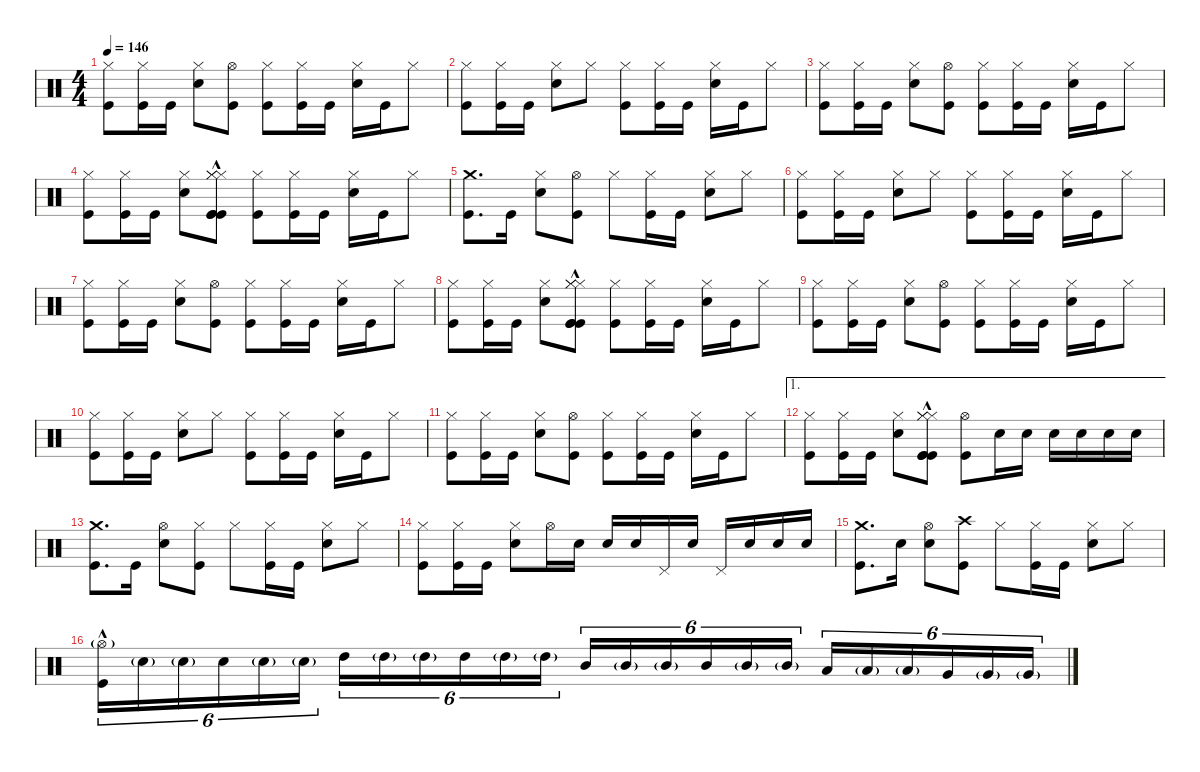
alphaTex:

\defaultSystemsLayout 4
\hideDynamics
\bracketExtendMode nobrackets
\singleTrackTrackNamePolicy hidden
\multiTrackTrackNamePolicy hidden
\firstSystemTrackNameMode fullname
\firstSystemTrackNameOrientation horizontal
\otherSystemsTrackNameOrientation horizontal
\track ("Drums" "drm.") {instrument percussion}
\staff {score}
\articulation defaults
\ts (4 4)
\tempo 146
\clef neutral
\ks c
("Hi-Hat (closed)" "Kick (hit)").8{dy f beam Down} ("Hi-Hat (closed)" "Kick (hit)").16{beam Down} "Kick (hit)".16{beam Down} ("Hi-Hat (closed)" "Snare (hit) 2").8{beam Down} ("Hi-Hat (open)" "Kick (hit)").8{beam Down} ("Hi-Hat (closed)" "Kick (hit)").8{beam Down} ("Hi-Hat (closed)" "Kick (hit)").16{beam Down} "Kick (hit)".16{beam Down} ("Hi-Hat (closed)" "Snare (hit) 2").16{beam Down} "Kick (hit)".16{beam Down} "Hi-Hat (closed)".8{beam Down} |
("Hi-Hat (closed)" "Kick (hit)").8{beam Down} ("Hi-Hat (closed)" "Kick (hit)").16{beam Down} "Kick (hit)".16{beam Down} ("Hi-Hat (closed)" "Snare (hit) 2").8{beam Down} "Hi-Hat (closed)".8{beam Down} ("Hi-Hat (closed)" "Kick (hit)").8{beam Down} ("Hi-Hat (closed)" "Kick (hit)").16{beam Down} "Kick (hit)".16{beam Down} ("Hi-Hat (closed)" "Snare (hit) 2").16{beam Down} "Kick (hit)".16{beam Down} "Hi-Hat (closed)".8{beam Down} |
("Hi-Hat (closed)" "Kick (hit)").8{beam Down} ("Hi-Hat (closed)" "Kick (hit)").16{beam Down} "Kick (hit)".16{beam Down} ("Hi-Hat (closed)" "Snare (hit) 2").8{beam Down} ("Hi-Hat (open)" "Kick (hit)").8{beam Down} ("Hi-Hat (closed)" "Kick (hit)").8{beam Down} ("Hi-Hat (closed)" "Kick (hit)").16{beam Down} "Kick (hit)".16{beam Down} ("Hi-Hat (closed)" "Snare (hit) 2").16{beam Down} "Kick (hit)".16{beam Down} "Hi-Hat (closed)".8{beam Down} |
("Hi-Hat (closed)" "Kick (hit)").8{beam Down} ("Hi-Hat (closed)" "Kick (hit)").16{beam Down} "Kick (hit)".16{beam Down} ("Hi-Hat (closed)" "Snare (hit) 2").8{beam Down} ("Hi-Hat (closed)"{hac} "Hi-Hat (closed)"{hac} "Hi-Hat (closed)"{hac} "Kick (hit)"{hac} "Kick (hit)"{hac} "Kick (hit)"{hac}).8{beam Down} ("Hi-Hat (closed)" "Kick (hit)").8{beam Down} ("Hi-Hat (closed)" "Kick (hit)").16{beam Down} "Kick (hit)".16{beam Down} ("Hi-Hat (closed)" "Snare (hit) 2").16{beam Down} "Kick (hit)".16{beam Down} "Hi-Hat (closed)".8{beam Down} |
("Crash medium (hit)" "Kick (hit)").8{d beam Down} "Kick (hit)".16{beam Down} ("Hi-Hat (closed)" "Snare (hit) 2").8{beam Down} ("Hi-Hat (open)" "Kick (hit)").8{beam Down} "Hi-Hat (closed)".8{beam Down} ("Hi-Hat (closed)" "Kick (hit)").16{beam Down} "Kick (hit)".16{beam Down} ("Hi-Hat (closed)" "Snare (hit) 2").8{beam Down} "Hi-Hat (closed)".8{beam Down} |
("Hi-Hat (closed)" "Kick (hit)").8{beam Down} ("Hi-Hat (closed)" "Kick (hit)").16{beam Down} "Kick (hit)".16{beam Down} ("Hi-Hat (closed)" "Snare (hit) 2").8{beam Down} "Hi-Hat (closed)".8{beam Down} ("Hi-Hat (closed)" "Kick (hit)").8{beam Down} ("Hi-Hat (closed)" "Kick (hit)").16{beam Down} "Kick (hit)".16{beam Down} ("Hi-Hat (closed)" "Snare (hit) 2").16{beam Down} "Kick (hit)".16{beam Down} "Hi-Hat (closed)".8{beam Down} |
("Hi-Hat (closed)" "Kick (hit)").8{beam Down} ("Hi-Hat (closed)" "Kick (hit)").16{beam Down} "Kick (hit)".16{beam Down} ("Hi-Hat (closed)" "Snare (hit) 2").8{beam Down} ("Hi-Hat (open)" "Kick (hit)").8{beam Down} ("Hi-Hat (closed)" "Kick (hit)").8{beam Down} ("Hi-Hat (closed)" "Kick (hit)").16{beam Down} "Kick (hit)".16{beam Down} ("Hi-Hat (closed)" "Snare (hit) 2").16{beam Down} "Kick (hit)".16{beam Down} "Hi-Hat (closed)".8{beam Down} |
("Hi-Hat (closed)" "Kick (hit)").8{beam Down} ("Hi-Hat (closed)" "Kick (hit)").16{beam Down} "Kick (hit)".16{beam Down} ("Hi-Hat (closed)" "Snare (hit) 2").8{beam Down} ("Hi-Hat (closed)"{hac} "Hi-Hat (closed)"{hac} "Hi-Hat (closed)"{hac} "Kick (hit)"{hac} "Kick (hit)"{hac} "Kick (hit)"{hac}).8{beam Down} ("Hi-Hat (closed)" "Kick (hit)").8{beam Down} ("Hi-Hat (closed)" "Kick (hit)").16{beam Down} "Kick (hit)".16{beam Down} ("Hi-Hat (closed)" "Snare (hit) 2").16{beam Down} "Kick (hit)".16{beam Down} "Hi-Hat (closed)".8{beam Down} |
("Hi-Hat (closed)" "Kick (hit)").8{beam Down} ("Hi-Hat (closed)" "Kick (hit)").16{beam Down} "Kick (hit)".16{beam Down} ("Hi-Hat (closed)" "Snare (hit) 2").8{beam Down} ("Hi-Hat (open)" "Kick (hit)").8{beam Down} ("Hi-Hat (closed)" "Kick (hit)").8{beam Down} ("Hi-Hat (closed)" "Kick (hit)").16{beam Down} "Kick (hit)".16{beam Down} ("Hi-Hat (closed)" "Snare (hit) 2").16{beam Down} "Kick (hit)".16{beam Down} "Hi-Hat (closed)".8{beam Down} |
("Hi-Hat (closed)" "Kick (hit)").8{beam Down} ("Hi-Hat (closed)" "Kick (hit)").16{beam Down} "Kick (hit)".16{beam Down} ("Hi-Hat (closed)" "Snare (hit) 2").8{beam Down} "Hi-Hat (closed)".8{beam Down} ("Hi-Hat (closed)" "Kick (hit)").8{beam Down} ("Hi-Hat (closed)" "Kick (hit)").16{beam Down} "Kick (hit)".16{beam Down} ("Hi-Hat (closed)" "Snare (hit) 2").16{beam Down} "Kick (hit)".16{beam Down} "Hi-Hat (closed)".8{beam Down} |
("Hi-Hat (closed)" "Kick (hit)").8{beam Down} ("Hi-Hat (closed)" "Kick (hit)").16{beam Down} "Kick (hit)".16{beam Down} ("Hi-Hat (closed)" "Snare (hit) 2").8{beam Down} ("Hi-Hat (open)" "Kick (hit)").8{beam Down} ("Hi-Hat (closed)" "Kick (hit)").8{beam Down} ("Hi-Hat (closed)" "Kick (hit)").16{beam Down} "Kick (hit)".16{beam Down} ("Hi-Hat (closed)" "Snare (hit) 2").16{beam Down} "Kick (hit)".16{beam Down} "Hi-Hat (closed)".8{beam Down} |
\ae 1
("Hi-Hat (closed)" "Kick (hit)").8{beam Down} ("Hi-Hat (closed)" "Kick (hit)").16{beam Down} "Kick (hit)".16{beam Down} ("Hi-Hat (closed)" "Snare (hit) 2").8{beam Down} ("Hi-Hat (closed)"{hac} "Hi-Hat (closed)"{hac} "Hi-Hat (closed)"{hac} "Kick (hit)"{hac} "Kick (hit)"{hac} "Kick (hit)"{hac}).8{beam Down} ("Hi-Hat (open)" "Kick (hit)").8{beam Down} "Snare (hit) 2".16{beam Down} "Snare (hit) 2".16{beam Down} "Snare (hit) 2".16{beam Down} "Snare (hit) 2".16{beam Down} "Snare (hit) 2".16{beam Down} "Snare (hit) 2".16{beam Down} |
("Crash medium (hit)" "Kick (hit)").8{d beam Down} "Kick (hit)".16{beam Down} ("Hi-Hat (open)" "Snare (hit) 2").8{beam Down} ("Hi-Hat (closed)" "Kick (hit)").8{beam Down} "Hi-Hat (closed)".8{beam Down} ("Hi-Hat (closed)" "Kick (hit)").16{beam Down} "Kick (hit)".16{beam Down} ("Hi-Hat (closed)" "Snare (hit) 2").8{beam Down} "Hi-Hat (closed)".8{beam Down} |
("Hi-Hat (closed)" "Kick (hit)").8{beam Down} ("Hi-Hat (closed)" "Kick (hit)").16{beam Down} "Kick (hit)".16{beam Down} ("Hi-Hat (closed)" "Snare (hit) 2").8{beam Down} "Hi-Hat (open)".16{beam Down} "Snare (hit) 2".16{beam Down} "Snare (hit) 2".16{beam Up} "Snare (hit) 2".16{beam Up} "Pedal Hi-Hat (hit)".16{beam Up} "Snare (hit) 2".16{beam Up} "Pedal Hi-Hat (hit)".16{beam Up} "Snare (hit) 2".16{beam Up} "Snare (hit) 2".16{beam Up} "Snare (hit) 2".16{beam Up} |
("Crash medium (hit)" "Kick (hit)").8{d beam Down} "Snare (hit) 2".16{beam Down} ("Hi-Hat (open)" "Snare (hit) 2").8{beam Down} ("Crash high (hit)" "Kick (hit)").8{beam Down} "Hi-Hat (closed)".8{beam Down} ("Hi-Hat (closed)" "Kick (hit)").16{beam Down} "Kick (hit)".16{beam Down} ("Hi-Hat (closed)" "Snare (hit) 2").8{beam Down} "Hi-Hat (closed)".8{beam Down} |
("Hi-Hat (open)"{g} "Kick (hit)"{hac}).16{tu (6 4) dy mf beam Down} "Snare (hit) 2"{g}.16{tu (6 4) beam Down} "Snare (hit) 2"{g}.16{tu (6 4) beam Down} "Snare (hit) 2".16{tu (6 4) dy f beam Down} "Snare (hit) 2"{g}.16{tu (6 4) dy mf beam Down} "Snare (hit) 2"{g}.16{tu (6 4) beam Down} "High Tom (hit)".16{tu (6 4) dy f beam Down} "High Tom (hit)"{g}.16{tu (6 4) dy mf beam Down} "High Tom (hit)"{g}.16{tu (6 4) beam Down} "High Tom (hit)".16{tu (6 4) dy f beam Down} "High Tom (hit)"{g}.16{tu (6 4) dy mf beam Down} "High Tom (hit)"{g}.16{tu (6 4) beam Down} "Mid Tom (hit)".16{tu (6 4) dy f beam Up} "Mid Tom (hit)"{g}.16{tu (6 4) dy mf beam Up} "Mid Tom (hit)"{g}.16{tu (6 4) beam Up} "Mid Tom (hit)".16{tu (6 4) dy f beam Up} "Mid Tom (hit)"{g}.16{tu (6 4) dy mf beam Up} "Mid Tom (hit)"{g}.16{tu (6 4) beam Up} "Low Tom (hit)".16{tu (6 4) dy f beam Up} "Low Tom (hit)"{g}.16{tu (6 4) dy mf beam Up} "Low Tom (hit)"{g}.16{tu (6 4) beam Up} "Very Low Tom (hit)".16{tu (6 4) dy f beam Up} "Very Low Tom (hit)"{g}.16{tu (6 4) dy mf beam Up} "Very Low Tom (hit)"{g}.16{tu (6 4) beam Up}
